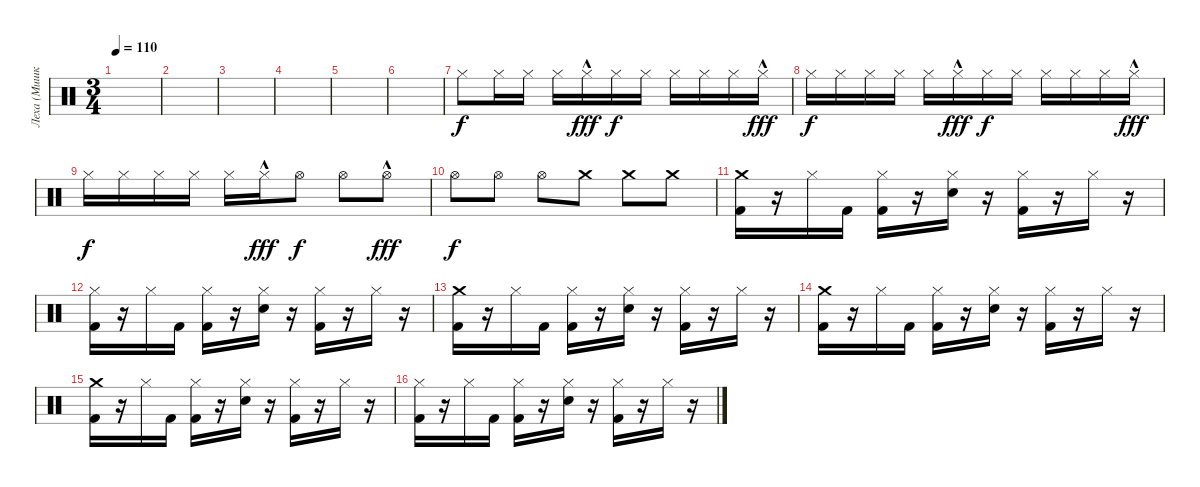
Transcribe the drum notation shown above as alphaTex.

\track ("Леха (Мишка Гами)" "Леха (Мишк") {instrument percussion}
\staff {score}
\articulation defaults
\ts (3 4)
\tempo 110
\clef neutral
\ks c
|
|
|
|
|
|
"Hi-Hat (closed)".8 "Hi-Hat (closed)".16 "Hi-Hat (closed)".16 "Hi-Hat (closed)".16 "Hi-Hat (closed)"{hac}.16{dy fff} "Hi-Hat (closed)".16{dy f} "Hi-Hat (closed)".16 "Hi-Hat (closed)".16 "Hi-Hat (closed)".16 "Hi-Hat (closed)".16 "Hi-Hat (closed)"{hac}.16{dy fff} |
"Hi-Hat (closed)".16{dy f} "Hi-Hat (closed)".16 "Hi-Hat (closed)".16 "Hi-Hat (closed)".16 "Hi-Hat (closed)".16 "Hi-Hat (closed)"{hac}.16{dy fff} "Hi-Hat (closed)".16{dy f} "Hi-Hat (closed)".16 "Hi-Hat (closed)".16 "Hi-Hat (closed)".16 "Hi-Hat (closed)".16 "Hi-Hat (closed)"{hac}.16{dy fff} |
"Hi-Hat (closed)".16{dy f} "Hi-Hat (closed)".16 "Hi-Hat (closed)".16 "Hi-Hat (closed)".16 "Hi-Hat (closed)".16 "Hi-Hat (closed)"{hac}.16{dy fff} "Hi-Hat (open)".8{dy f} "Hi-Hat (open)".8 "Hi-Hat (open)"{hac}.8{dy fff} |
"Hi-Hat (open)".8{dy f} "Hi-Hat (open)".8 "Hi-Hat (open)".8 "Crash medium (hit)".8 "Crash medium (hit)".8 "Crash medium (hit)".8 |
("Crash medium (hit)" "Kick (hit) 2").16 r.16 "Hi-Hat (closed)".16 "Kick (hit) 2".16 ("Hi-Hat (closed)" "Kick (hit) 2").16 r.16 ("Hi-Hat (closed)" "Snare (hit) 2").16 r.16 ("Hi-Hat (closed)" "Kick (hit) 2").16 r.16 "Hi-Hat (closed)".16 r.16 |
("Hi-Hat (closed)" "Kick (hit) 2").16 r.16 "Hi-Hat (closed)".16 "Kick (hit) 2".16 ("Hi-Hat (closed)" "Kick (hit) 2").16 r.16 ("Hi-Hat (closed)" "Snare (hit) 2").16 r.16 ("Hi-Hat (closed)" "Kick (hit) 2").16 r.16 "Hi-Hat (closed)".16 r.16 |
("Crash medium (hit)" "Kick (hit) 2").16 r.16 "Hi-Hat (closed)".16 "Kick (hit) 2".16 ("Hi-Hat (closed)" "Kick (hit) 2").16 r.16 ("Hi-Hat (closed)" "Snare (hit) 2").16 r.16 ("Hi-Hat (closed)" "Kick (hit) 2").16 r.16 "Hi-Hat (closed)".16 r.16 |
("Crash medium (hit)" "Kick (hit) 2").16 r.16 "Hi-Hat (closed)".16 "Kick (hit) 2".16 ("Hi-Hat (closed)" "Kick (hit) 2").16 r.16 ("Hi-Hat (closed)" "Snare (hit) 2").16 r.16 ("Hi-Hat (closed)" "Kick (hit) 2").16 r.16 "Hi-Hat (closed)".16 r.16 |
("Crash medium (hit)" "Kick (hit) 2").16 r.16 "Hi-Hat (closed)".16 "Kick (hit) 2".16 ("Hi-Hat (closed)" "Kick (hit) 2").16 r.16 ("Hi-Hat (closed)" "Snare (hit) 2").16 r.16 ("Hi-Hat (closed)" "Kick (hit) 2").16 r.16 "Hi-Hat (closed)".16 r.16 |
("Hi-Hat (closed)" "Kick (hit) 2").16 r.16 "Hi-Hat (closed)".16 "Kick (hit) 2".16 ("Hi-Hat (closed)" "Kick (hit) 2").16 r.16 ("Hi-Hat (closed)" "Snare (hit) 2").16 r.16 ("Hi-Hat (closed)" "Kick (hit) 2").16 r.16 "Hi-Hat (closed)".16 r.16
